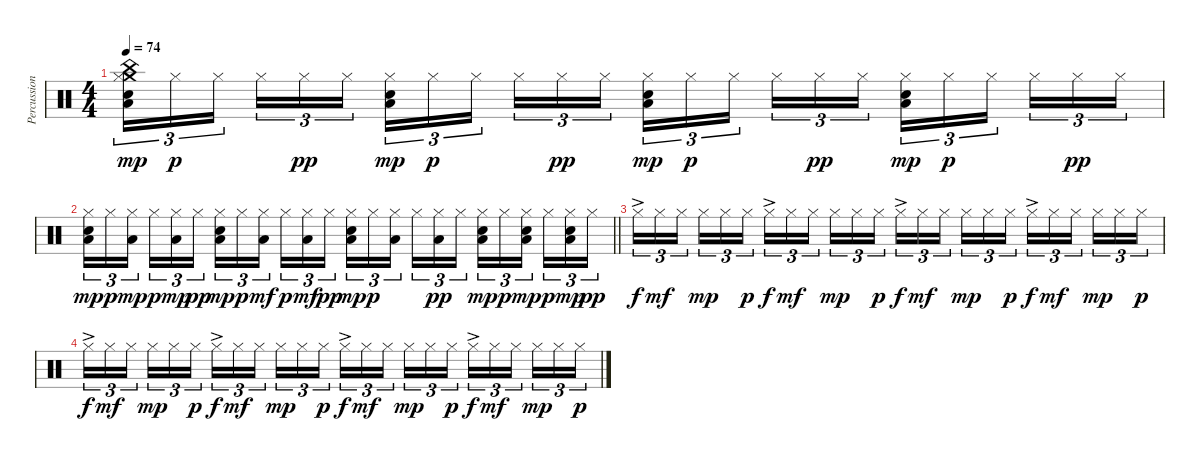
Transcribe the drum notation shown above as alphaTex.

\track ("Percussion" "Percussion") {instrument percussion}
\staff {score}
\articulation defaults
\ts (4 4)
\tempo 74
\clef neutral
\ks c
("Crash medium (hit)" "China (hit)" "Hi-Hat (closed)" "Low Floor Tom (hit)" "Snare (hit) 2").16{tu (3 2) dy mp} "Hi-Hat (closed)".16{tu (3 2) dy p} "Hi-Hat (closed)".16{tu (3 2)} "Hi-Hat (closed)".16{tu (3 2)} "Hi-Hat (closed)".16{tu (3 2) dy pp} "Hi-Hat (closed)".16{tu (3 2)} ("Hi-Hat (closed)" "Low Floor Tom (hit)" "Snare (hit) 2").16{tu (3 2) dy mp} "Hi-Hat (closed)".16{tu (3 2) dy p} "Hi-Hat (closed)".16{tu (3 2)} "Hi-Hat (closed)".16{tu (3 2)} "Hi-Hat (closed)".16{tu (3 2) dy pp} "Hi-Hat (closed)".16{tu (3 2)} ("Hi-Hat (closed)" "Low Floor Tom (hit)" "Snare (hit) 2").16{tu (3 2) dy mp} "Hi-Hat (closed)".16{tu (3 2) dy p} "Hi-Hat (closed)".16{tu (3 2)} "Hi-Hat (closed)".16{tu (3 2)} "Hi-Hat (closed)".16{tu (3 2) dy pp} "Hi-Hat (closed)".16{tu (3 2)} ("Hi-Hat (closed)" "Low Floor Tom (hit)" "Snare (hit) 2").16{tu (3 2) dy mp} "Hi-Hat (closed)".16{tu (3 2) dy p} "Hi-Hat (closed)".16{tu (3 2)} "Hi-Hat (closed)".16{tu (3 2)} "Hi-Hat (closed)".16{tu (3 2) dy pp} "Hi-Hat (closed)".16{tu (3 2)} |
\barLineRight lightlight
("Hi-Hat (closed)" "Low Floor Tom (hit)" "Snare (hit) 2").16{tu (3 2) dy mp} "Hi-Hat (closed)".16{tu (3 2) dy p} ("Hi-Hat (closed)" "Low Floor Tom (hit)").16{tu (3 2) dy mp} "Hi-Hat (closed)".16{tu (3 2) dy p} ("Hi-Hat (closed)" "Low Floor Tom (hit)").16{tu (3 2) dy mp} "Hi-Hat (closed)".16{tu (3 2) dy pp} ("Hi-Hat (closed)" "Low Floor Tom (hit)" "Snare (hit) 2").16{tu (3 2) dy mp} "Hi-Hat (closed)".16{tu (3 2) dy p} ("Hi-Hat (closed)" "Low Floor Tom (hit)").16{tu (3 2) dy mf} "Hi-Hat (closed)".16{tu (3 2) dy p} ("Hi-Hat (closed)" "Low Floor Tom (hit)").16{tu (3 2) dy mf} "Hi-Hat (closed)".16{tu (3 2) dy pp} ("Hi-Hat (closed)" "Low Floor Tom (hit)" "Snare (hit) 2").16{tu (3 2) dy mp} "Hi-Hat (closed)".16{tu (3 2) dy p} ("Hi-Hat (closed)" "Low Floor Tom (hit)").16{tu (3 2)} "Hi-Hat (closed)".16{tu (3 2)} ("Hi-Hat (closed)" "Low Floor Tom (hit)").16{tu (3 2) dy pp} "Hi-Hat (closed)".16{tu (3 2)} ("Hi-Hat (closed)" "Low Floor Tom (hit)" "Snare (hit) 2").16{tu (3 2) dy mp} "Hi-Hat (closed)".16{tu (3 2) dy p} ("Hi-Hat (closed)" "Low Floor Tom (hit)" "Snare (hit) 2").16{tu (3 2) dy mp} "Hi-Hat (closed)".16{tu (3 2) dy p} ("Hi-Hat (closed)" "Low Floor Tom (hit)" "Snare (hit) 2").16{tu (3 2) dy mp} "Hi-Hat (closed)".16{tu (3 2) dy pp} |
\section ("" "")
"Hi-Hat (closed)"{ac}.16{tu (3 2) dy f volume 9} "Hi-Hat (closed)".16{tu (3 2) dy mf} "Hi-Hat (closed)".16{tu (3 2)} "Hi-Hat (closed)".16{tu (3 2) dy mp} "Hi-Hat (closed)".16{tu (3 2)} "Hi-Hat (closed)".16{tu (3 2) dy p} "Hi-Hat (closed)"{ac}.16{tu (3 2) dy f} "Hi-Hat (closed)".16{tu (3 2) dy mf} "Hi-Hat (closed)".16{tu (3 2)} "Hi-Hat (closed)".16{tu (3 2) dy mp} "Hi-Hat (closed)".16{tu (3 2)} "Hi-Hat (closed)".16{tu (3 2) dy p} "Hi-Hat (closed)"{ac}.16{tu (3 2) dy f volume 0} "Hi-Hat (closed)".16{tu (3 2) dy mf} "Hi-Hat (closed)".16{tu (3 2)} "Hi-Hat (closed)".16{tu (3 2) dy mp} "Hi-Hat (closed)".16{tu (3 2)} "Hi-Hat (closed)".16{tu (3 2) dy p} "Hi-Hat (closed)"{ac}.16{tu (3 2) dy f} "Hi-Hat (closed)".16{tu (3 2) dy mf} "Hi-Hat (closed)".16{tu (3 2)} "Hi-Hat (closed)".16{tu (3 2) dy mp} "Hi-Hat (closed)".16{tu (3 2)} "Hi-Hat (closed)".16{tu (3 2) dy p} |
"Hi-Hat (closed)"{ac}.16{tu (3 2) dy f} "Hi-Hat (closed)".16{tu (3 2) dy mf} "Hi-Hat (closed)".16{tu (3 2)} "Hi-Hat (closed)".16{tu (3 2) dy mp} "Hi-Hat (closed)".16{tu (3 2)} "Hi-Hat (closed)".16{tu (3 2) dy p} "Hi-Hat (closed)"{ac}.16{tu (3 2) dy f} "Hi-Hat (closed)".16{tu (3 2) dy mf} "Hi-Hat (closed)".16{tu (3 2)} "Hi-Hat (closed)".16{tu (3 2) dy mp} "Hi-Hat (closed)".16{tu (3 2)} "Hi-Hat (closed)".16{tu (3 2) dy p} "Hi-Hat (closed)"{ac}.16{tu (3 2) dy f} "Hi-Hat (closed)".16{tu (3 2) dy mf} "Hi-Hat (closed)".16{tu (3 2)} "Hi-Hat (closed)".16{tu (3 2) dy mp} "Hi-Hat (closed)".16{tu (3 2)} "Hi-Hat (closed)".16{tu (3 2) dy p} "Hi-Hat (closed)"{ac}.16{tu (3 2) dy f} "Hi-Hat (closed)".16{tu (3 2) dy mf} "Hi-Hat (closed)".16{tu (3 2)} "Hi-Hat (closed)".16{tu (3 2) dy mp} "Hi-Hat (closed)".16{tu (3 2)} "Hi-Hat (closed)".16{tu (3 2) dy p}
